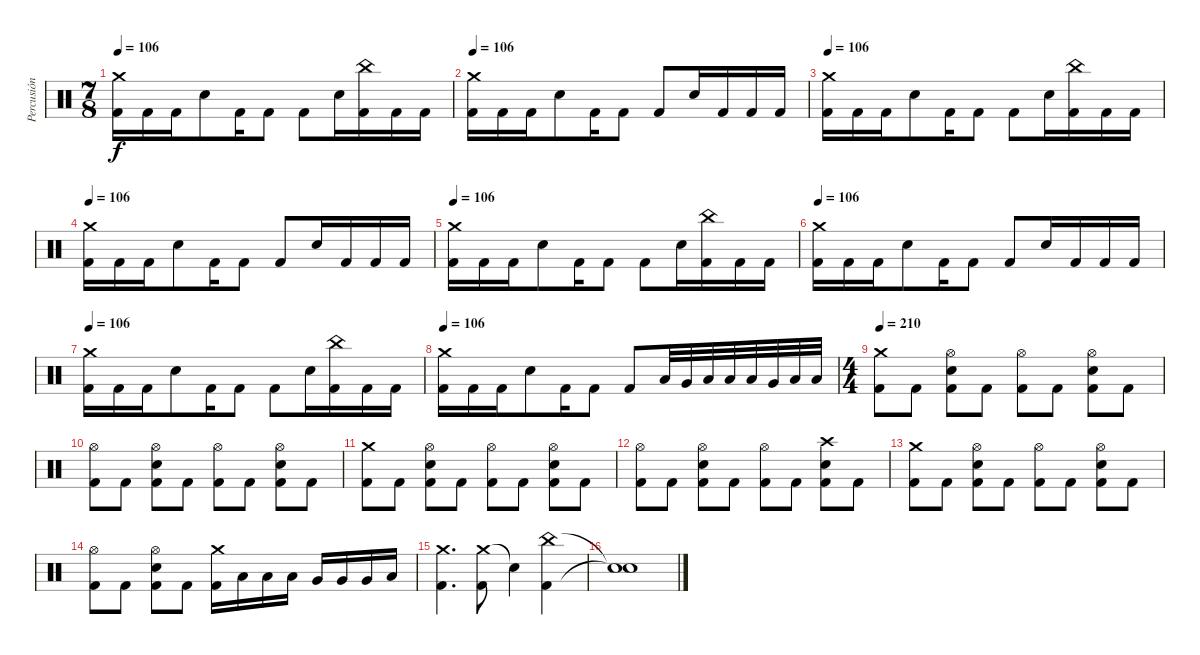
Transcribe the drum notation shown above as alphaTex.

\track ("Percusión" "Percusión") {instrument percussion}
\staff {score}
\articulation defaults
\ts (7 8)
\tempo 106
\clef neutral
\ks c
("Crash medium (hit)" "Kick (hit) 2").16{dy f} "Kick (hit) 2".16 "Kick (hit) 2".16 "Electric Snare (hit)".8 "Kick (hit) 2".16 "Kick (hit) 2".8 "Kick (hit) 2".8 "Electric Snare (hit)".16 ("China (hit)" "Kick (hit) 2").16 "Kick (hit) 2".16 "Kick (hit) 2".16 |
\tempo 106
("Crash medium (hit)" "Kick (hit) 2").16 "Kick (hit) 2".16 "Kick (hit) 2".16 "Electric Snare (hit)".8 "Kick (hit) 2".16 "Kick (hit) 2".8 "Kick (hit) 2".8 "Electric Snare (hit)".16 "Kick (hit) 2".16 "Kick (hit) 2".16 "Kick (hit) 2".16 |
\tempo 106
("Crash medium (hit)" "Kick (hit) 2").16 "Kick (hit) 2".16 "Kick (hit) 2".16 "Electric Snare (hit)".8 "Kick (hit) 2".16 "Kick (hit) 2".8 "Kick (hit) 2".8 "Electric Snare (hit)".16 ("China (hit)" "Kick (hit) 2").16 "Kick (hit) 2".16 "Kick (hit) 2".16 |
\tempo 106
("Crash medium (hit)" "Kick (hit) 2").16 "Kick (hit) 2".16 "Kick (hit) 2".16 "Electric Snare (hit)".8 "Kick (hit) 2".16 "Kick (hit) 2".8 "Kick (hit) 2".8 "Electric Snare (hit)".16 "Kick (hit) 2".16 "Kick (hit) 2".16 "Kick (hit) 2".16 |
\tempo 106
("Crash medium (hit)" "Kick (hit) 2").16 "Kick (hit) 2".16 "Kick (hit) 2".16 "Electric Snare (hit)".8 "Kick (hit) 2".16 "Kick (hit) 2".8 "Kick (hit) 2".8 "Electric Snare (hit)".16 ("China (hit)" "Kick (hit) 2").16 "Kick (hit) 2".16 "Kick (hit) 2".16 |
\tempo 106
("Crash medium (hit)" "Kick (hit) 2").16 "Kick (hit) 2".16 "Kick (hit) 2".16 "Electric Snare (hit)".8 "Kick (hit) 2".16 "Kick (hit) 2".8 "Kick (hit) 2".8 "Electric Snare (hit)".16 "Kick (hit) 2".16 "Kick (hit) 2".16 "Kick (hit) 2".16 |
\tempo 106
("Crash medium (hit)" "Kick (hit) 2").16 "Kick (hit) 2".16 "Kick (hit) 2".16 "Electric Snare (hit)".8 "Kick (hit) 2".16 "Kick (hit) 2".8 "Kick (hit) 2".8 "Electric Snare (hit)".16 ("China (hit)" "Kick (hit) 2").16 "Kick (hit) 2".16 "Kick (hit) 2".16 |
\tempo 106
("Crash medium (hit)" "Kick (hit) 2").16 "Kick (hit) 2".16 "Kick (hit) 2".16 "Electric Snare (hit)".8 "Kick (hit) 2".16 "Kick (hit) 2".8 "Kick (hit) 2".8 "Low Tom (hit)".32 "Very Low Tom (hit)".32 "Low Floor Tom (hit)".32 "Low Floor Tom (hit)".32 "Low Tom (hit)".32 "Very Low Tom (hit)".32 "Low Floor Tom (hit)".32 "Low Floor Tom (hit)".32 |
\ts (4 4)
\tempo 210
("Crash medium (hit)" "Kick (hit) 2").8 "Kick (hit) 2".8 ("Hi-Hat (open)" "Electric Snare (hit)" "Kick (hit) 2").8 "Kick (hit) 2".8 ("Hi-Hat (open)" "Kick (hit) 2").8 "Kick (hit) 2".8 ("Hi-Hat (open)" "Electric Snare (hit)" "Kick (hit) 2").8 "Kick (hit) 2".8 |
("Hi-Hat (open)" "Kick (hit) 2").8 "Kick (hit) 2".8 ("Hi-Hat (open)" "Electric Snare (hit)" "Kick (hit) 2").8 "Kick (hit) 2".8 ("Hi-Hat (open)" "Kick (hit) 2").8 "Kick (hit) 2".8 ("Hi-Hat (open)" "Electric Snare (hit)" "Kick (hit) 2").8 "Kick (hit) 2".8 |
("Crash medium (hit)" "Kick (hit) 2").8 "Kick (hit) 2".8 ("Hi-Hat (open)" "Electric Snare (hit)" "Kick (hit) 2").8 "Kick (hit) 2".8 ("Hi-Hat (open)" "Kick (hit) 2").8 "Kick (hit) 2".8 ("Hi-Hat (open)" "Electric Snare (hit)" "Kick (hit) 2").8 "Kick (hit) 2".8 |
("Hi-Hat (open)" "Kick (hit) 2").8 "Kick (hit) 2".8 ("Hi-Hat (open)" "Electric Snare (hit)" "Kick (hit) 2").8 "Kick (hit) 2".8 ("Hi-Hat (open)" "Kick (hit) 2").8 "Kick (hit) 2".8 ("Crash high (hit)" "Electric Snare (hit)" "Kick (hit) 2").8 "Kick (hit) 2".8 |
("Crash medium (hit)" "Kick (hit) 2").8 "Kick (hit) 2".8 ("Hi-Hat (open)" "Electric Snare (hit)" "Kick (hit) 2").8 "Kick (hit) 2".8 ("Hi-Hat (open)" "Kick (hit) 2").8 "Kick (hit) 2".8 ("Hi-Hat (open)" "Electric Snare (hit)" "Kick (hit) 2").8 "Kick (hit) 2".8 |
("Hi-Hat (open)" "Kick (hit) 2").8 "Kick (hit) 2".8 ("Hi-Hat (open)" "Electric Snare (hit)" "Kick (hit) 2").8 "Kick (hit) 2".8 ("Crash medium (hit)" "Kick (hit) 2").16 "Low Tom (hit)".16 "Low Tom (hit)".16 "Low Tom (hit)".16 "Very Low Tom (hit)".16 "Very Low Tom (hit)".16 "Very Low Tom (hit)".16 "Low Floor Tom (hit)".16 |
("Crash medium (hit)" "Kick (hit) 2").4{d} ("Crash medium (hit)" "Kick (hit) 2").8 "Snare (hit)"{t}.4 ("China (hit)" "Kick (hit) 2").4 |
("Snare (hit)"{t} "Snare (hit)"{t}).1
